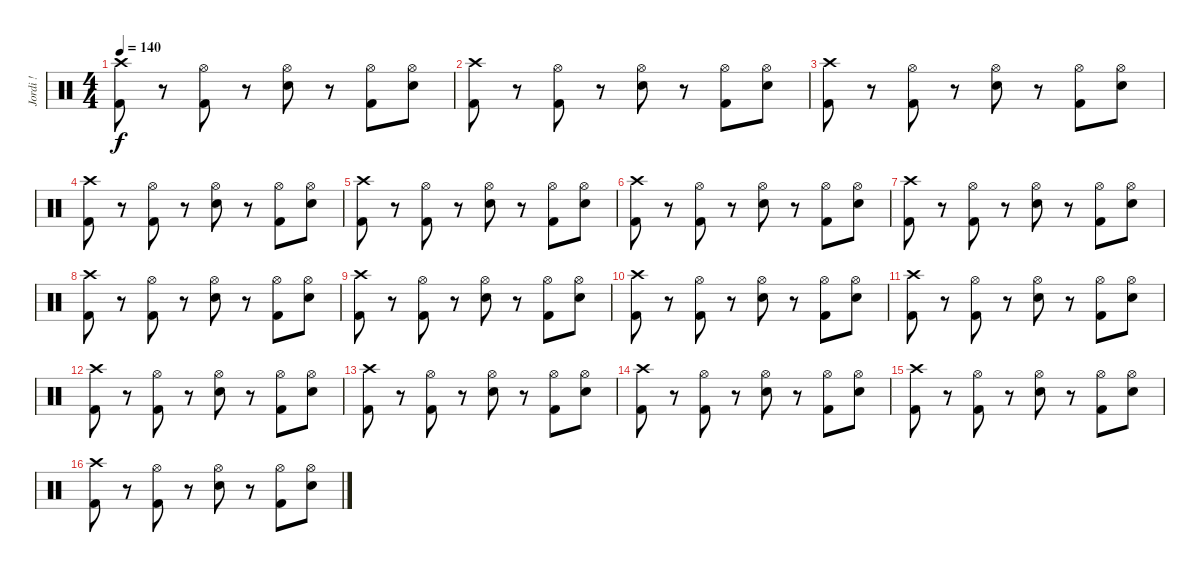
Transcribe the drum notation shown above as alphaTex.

\track ("Jordi !" "Jordi !") {instrument percussion}
\staff {score}
\articulation defaults
\ts (4 4)
\tempo 140
\clef neutral
\ks c
("Crash high (hit)" "Kick (hit) 2").8{dy f} r.8 ("Hi-Hat (open)" "Kick (hit) 2").8 r.8 ("Hi-Hat (open)" "Electric Snare (hit)").8 r.8 ("Hi-Hat (open)" "Kick (hit) 2").8 ("Hi-Hat (open)" "Electric Snare (hit)").8 |
("Crash high (hit)" "Kick (hit) 2").8 r.8 ("Hi-Hat (open)" "Kick (hit) 2").8 r.8 ("Hi-Hat (open)" "Electric Snare (hit)").8 r.8 ("Hi-Hat (open)" "Kick (hit) 2").8 ("Hi-Hat (open)" "Electric Snare (hit)").8 |
("Crash high (hit)" "Kick (hit) 2").8 r.8 ("Hi-Hat (open)" "Kick (hit) 2").8 r.8 ("Hi-Hat (open)" "Electric Snare (hit)").8 r.8 ("Hi-Hat (open)" "Kick (hit) 2").8 ("Hi-Hat (open)" "Electric Snare (hit)").8 |
("Crash high (hit)" "Kick (hit) 2").8 r.8 ("Hi-Hat (open)" "Kick (hit) 2").8 r.8 ("Hi-Hat (open)" "Electric Snare (hit)").8 r.8 ("Hi-Hat (open)" "Kick (hit) 2").8 ("Hi-Hat (open)" "Electric Snare (hit)").8 |
("Crash high (hit)" "Kick (hit) 2").8 r.8 ("Hi-Hat (open)" "Kick (hit) 2").8 r.8 ("Hi-Hat (open)" "Electric Snare (hit)").8 r.8 ("Hi-Hat (open)" "Kick (hit) 2").8 ("Hi-Hat (open)" "Electric Snare (hit)").8 |
("Crash high (hit)" "Kick (hit) 2").8 r.8 ("Hi-Hat (open)" "Kick (hit) 2").8 r.8 ("Hi-Hat (open)" "Electric Snare (hit)").8 r.8 ("Hi-Hat (open)" "Kick (hit) 2").8 ("Hi-Hat (open)" "Electric Snare (hit)").8 |
("Crash high (hit)" "Kick (hit) 2").8 r.8 ("Hi-Hat (open)" "Kick (hit) 2").8 r.8 ("Hi-Hat (open)" "Electric Snare (hit)").8 r.8 ("Hi-Hat (open)" "Kick (hit) 2").8 ("Hi-Hat (open)" "Electric Snare (hit)").8 |
("Crash high (hit)" "Kick (hit) 2").8 r.8 ("Hi-Hat (open)" "Kick (hit) 2").8 r.8 ("Hi-Hat (open)" "Electric Snare (hit)").8 r.8 ("Hi-Hat (open)" "Kick (hit) 2").8 ("Hi-Hat (open)" "Electric Snare (hit)").8 |
("Crash high (hit)" "Kick (hit) 2").8 r.8 ("Hi-Hat (open)" "Kick (hit) 2").8 r.8 ("Hi-Hat (open)" "Electric Snare (hit)").8 r.8 ("Hi-Hat (open)" "Kick (hit) 2").8 ("Hi-Hat (open)" "Electric Snare (hit)").8 |
("Crash high (hit)" "Kick (hit) 2").8 r.8 ("Hi-Hat (open)" "Kick (hit) 2").8 r.8 ("Hi-Hat (open)" "Electric Snare (hit)").8 r.8 ("Hi-Hat (open)" "Kick (hit) 2").8 ("Hi-Hat (open)" "Electric Snare (hit)").8 |
("Crash high (hit)" "Kick (hit) 2").8 r.8 ("Hi-Hat (open)" "Kick (hit) 2").8 r.8 ("Hi-Hat (open)" "Electric Snare (hit)").8 r.8 ("Hi-Hat (open)" "Kick (hit) 2").8 ("Hi-Hat (open)" "Electric Snare (hit)").8 |
("Crash high (hit)" "Kick (hit) 2").8 r.8 ("Hi-Hat (open)" "Kick (hit) 2").8 r.8 ("Hi-Hat (open)" "Electric Snare (hit)").8 r.8 ("Hi-Hat (open)" "Kick (hit) 2").8 ("Hi-Hat (open)" "Electric Snare (hit)").8 |
("Crash high (hit)" "Kick (hit) 2").8 r.8 ("Hi-Hat (open)" "Kick (hit) 2").8 r.8 ("Hi-Hat (open)" "Electric Snare (hit)").8 r.8 ("Hi-Hat (open)" "Kick (hit) 2").8 ("Hi-Hat (open)" "Electric Snare (hit)").8 |
("Crash high (hit)" "Kick (hit) 2").8 r.8 ("Hi-Hat (open)" "Kick (hit) 2").8 r.8 ("Hi-Hat (open)" "Electric Snare (hit)").8 r.8 ("Hi-Hat (open)" "Kick (hit) 2").8 ("Hi-Hat (open)" "Electric Snare (hit)").8 |
("Crash high (hit)" "Kick (hit) 2").8 r.8 ("Hi-Hat (open)" "Kick (hit) 2").8 r.8 ("Hi-Hat (open)" "Electric Snare (hit)").8 r.8 ("Hi-Hat (open)" "Kick (hit) 2").8 ("Hi-Hat (open)" "Electric Snare (hit)").8 |
("Crash high (hit)" "Kick (hit) 2").8 r.8 ("Hi-Hat (open)" "Kick (hit) 2").8 r.8 ("Hi-Hat (open)" "Electric Snare (hit)").8 r.8 ("Hi-Hat (open)" "Kick (hit) 2").8 ("Hi-Hat (open)" "Electric Snare (hit)").8
